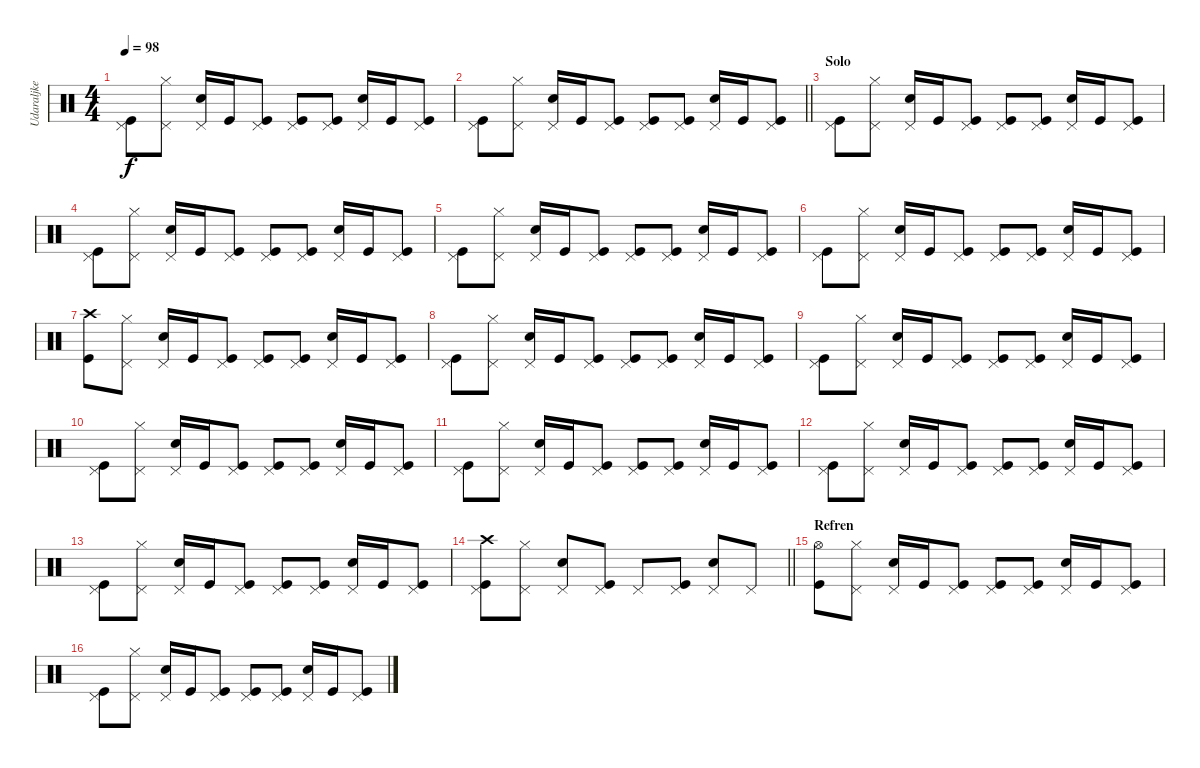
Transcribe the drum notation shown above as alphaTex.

\track ("Udaraljke" "Udaraljke") {instrument percussion}
\staff {score}
\articulation defaults
\ts (4 4)
\tempo 98
\clef neutral
\ks c
("Pedal Hi-Hat (hit)" "Kick (hit)").8{dy f} ("Pedal Hi-Hat (hit)" "Hi-Hat (closed)").8 ("Pedal Hi-Hat (hit)" "Electric Snare (hit)").16 "Kick (hit)".16 ("Pedal Hi-Hat (hit)" "Kick (hit)").8 ("Pedal Hi-Hat (hit)" "Kick (hit)").8 ("Pedal Hi-Hat (hit)" "Kick (hit)").8 ("Pedal Hi-Hat (hit)" "Electric Snare (hit)").16 "Kick (hit)".16 ("Pedal Hi-Hat (hit)" "Kick (hit)").8 |
\barLineRight lightlight
("Pedal Hi-Hat (hit)" "Kick (hit)").8 ("Pedal Hi-Hat (hit)" "Hi-Hat (closed)").8 ("Pedal Hi-Hat (hit)" "Electric Snare (hit)").16 "Kick (hit)".16 ("Pedal Hi-Hat (hit)" "Kick (hit)").8 ("Pedal Hi-Hat (hit)" "Kick (hit)").8 ("Pedal Hi-Hat (hit)" "Kick (hit)").8 ("Pedal Hi-Hat (hit)" "Electric Snare (hit)").16 "Kick (hit)".16 ("Pedal Hi-Hat (hit)" "Kick (hit)").8 |
\section ("" "Solo")
("Pedal Hi-Hat (hit)" "Kick (hit)").8 ("Pedal Hi-Hat (hit)" "Hi-Hat (closed)").8 ("Pedal Hi-Hat (hit)" "Electric Snare (hit)").16 "Kick (hit)".16 ("Pedal Hi-Hat (hit)" "Kick (hit)").8 ("Pedal Hi-Hat (hit)" "Kick (hit)").8 ("Pedal Hi-Hat (hit)" "Kick (hit)").8 ("Pedal Hi-Hat (hit)" "Electric Snare (hit)").16 "Kick (hit)".16 ("Pedal Hi-Hat (hit)" "Kick (hit)").8 |
("Pedal Hi-Hat (hit)" "Kick (hit)").8 ("Pedal Hi-Hat (hit)" "Hi-Hat (closed)").8 ("Pedal Hi-Hat (hit)" "Electric Snare (hit)").16 "Kick (hit)".16 ("Pedal Hi-Hat (hit)" "Kick (hit)").8 ("Pedal Hi-Hat (hit)" "Kick (hit)").8 ("Pedal Hi-Hat (hit)" "Kick (hit)").8 ("Pedal Hi-Hat (hit)" "Electric Snare (hit)").16 "Kick (hit)".16 ("Pedal Hi-Hat (hit)" "Kick (hit)").8 |
("Pedal Hi-Hat (hit)" "Kick (hit)").8 ("Pedal Hi-Hat (hit)" "Hi-Hat (closed)").8 ("Pedal Hi-Hat (hit)" "Electric Snare (hit)").16 "Kick (hit)".16 ("Pedal Hi-Hat (hit)" "Kick (hit)").8 ("Pedal Hi-Hat (hit)" "Kick (hit)").8 ("Pedal Hi-Hat (hit)" "Kick (hit)").8 ("Pedal Hi-Hat (hit)" "Electric Snare (hit)").16 "Kick (hit)".16 ("Pedal Hi-Hat (hit)" "Kick (hit)").8 |
("Pedal Hi-Hat (hit)" "Kick (hit)").8 ("Pedal Hi-Hat (hit)" "Hi-Hat (closed)").8 ("Pedal Hi-Hat (hit)" "Electric Snare (hit)").16 "Kick (hit)".16 ("Pedal Hi-Hat (hit)" "Kick (hit)").8 ("Pedal Hi-Hat (hit)" "Kick (hit)").8 ("Pedal Hi-Hat (hit)" "Kick (hit)").8 ("Pedal Hi-Hat (hit)" "Electric Snare (hit)").16 "Kick (hit)".16 ("Pedal Hi-Hat (hit)" "Kick (hit)").8 |
("Crash high (hit)" "Kick (hit)").8 ("Pedal Hi-Hat (hit)" "Hi-Hat (closed)").8 ("Pedal Hi-Hat (hit)" "Electric Snare (hit)").16 "Kick (hit)".16 ("Pedal Hi-Hat (hit)" "Kick (hit)").8 ("Pedal Hi-Hat (hit)" "Kick (hit)").8 ("Pedal Hi-Hat (hit)" "Kick (hit)").8 ("Pedal Hi-Hat (hit)" "Electric Snare (hit)").16 "Kick (hit)".16 ("Pedal Hi-Hat (hit)" "Kick (hit)").8 |
("Pedal Hi-Hat (hit)" "Kick (hit)").8 ("Pedal Hi-Hat (hit)" "Hi-Hat (closed)").8 ("Pedal Hi-Hat (hit)" "Electric Snare (hit)").16 "Kick (hit)".16 ("Pedal Hi-Hat (hit)" "Kick (hit)").8 ("Pedal Hi-Hat (hit)" "Kick (hit)").8 ("Pedal Hi-Hat (hit)" "Kick (hit)").8 ("Pedal Hi-Hat (hit)" "Electric Snare (hit)").16 "Kick (hit)".16 ("Pedal Hi-Hat (hit)" "Kick (hit)").8 |
("Pedal Hi-Hat (hit)" "Kick (hit)").8 ("Pedal Hi-Hat (hit)" "Hi-Hat (closed)").8 ("Pedal Hi-Hat (hit)" "Electric Snare (hit)").16 "Kick (hit)".16 ("Pedal Hi-Hat (hit)" "Kick (hit)").8 ("Pedal Hi-Hat (hit)" "Kick (hit)").8 ("Pedal Hi-Hat (hit)" "Kick (hit)").8 ("Pedal Hi-Hat (hit)" "Electric Snare (hit)").16 "Kick (hit)".16 ("Pedal Hi-Hat (hit)" "Kick (hit)").8 |
("Pedal Hi-Hat (hit)" "Kick (hit)").8 ("Pedal Hi-Hat (hit)" "Hi-Hat (closed)").8 ("Pedal Hi-Hat (hit)" "Electric Snare (hit)").16 "Kick (hit)".16 ("Pedal Hi-Hat (hit)" "Kick (hit)").8 ("Pedal Hi-Hat (hit)" "Kick (hit)").8 ("Pedal Hi-Hat (hit)" "Kick (hit)").8 ("Pedal Hi-Hat (hit)" "Electric Snare (hit)").16 "Kick (hit)".16 ("Pedal Hi-Hat (hit)" "Kick (hit)").8 |
("Pedal Hi-Hat (hit)" "Kick (hit)").8 ("Pedal Hi-Hat (hit)" "Hi-Hat (closed)").8 ("Pedal Hi-Hat (hit)" "Electric Snare (hit)").16 "Kick (hit)".16 ("Pedal Hi-Hat (hit)" "Kick (hit)").8 ("Pedal Hi-Hat (hit)" "Kick (hit)").8 ("Pedal Hi-Hat (hit)" "Kick (hit)").8 ("Pedal Hi-Hat (hit)" "Electric Snare (hit)").16 "Kick (hit)".16 ("Pedal Hi-Hat (hit)" "Kick (hit)").8 |
("Pedal Hi-Hat (hit)" "Kick (hit)").8 ("Pedal Hi-Hat (hit)" "Hi-Hat (closed)").8 ("Pedal Hi-Hat (hit)" "Electric Snare (hit)").16 "Kick (hit)".16 ("Pedal Hi-Hat (hit)" "Kick (hit)").8 ("Pedal Hi-Hat (hit)" "Kick (hit)").8 ("Pedal Hi-Hat (hit)" "Kick (hit)").8 ("Pedal Hi-Hat (hit)" "Electric Snare (hit)").16 "Kick (hit)".16 ("Pedal Hi-Hat (hit)" "Kick (hit)").8 |
("Pedal Hi-Hat (hit)" "Kick (hit)").8 ("Pedal Hi-Hat (hit)" "Hi-Hat (closed)").8 ("Pedal Hi-Hat (hit)" "Electric Snare (hit)").16 "Kick (hit)".16 ("Pedal Hi-Hat (hit)" "Kick (hit)").8 ("Pedal Hi-Hat (hit)" "Kick (hit)").8 ("Pedal Hi-Hat (hit)" "Kick (hit)").8 ("Pedal Hi-Hat (hit)" "Electric Snare (hit)").16 "Kick (hit)".16 ("Pedal Hi-Hat (hit)" "Kick (hit)").8 |
\barLineRight lightlight
("Pedal Hi-Hat (hit)" "Crash high (hit)" "Kick (hit)").8 ("Pedal Hi-Hat (hit)" "Hi-Hat (closed)").8 ("Pedal Hi-Hat (hit)" "Electric Snare (hit)").8 ("Pedal Hi-Hat (hit)" "Kick (hit)").8 "Pedal Hi-Hat (hit)".8 ("Pedal Hi-Hat (hit)" "Kick (hit)").8 ("Pedal Hi-Hat (hit)" "Electric Snare (hit)").8 "Pedal Hi-Hat (hit)".8 |
\section ("" "Refren")
("Hi-Hat (open)" "Kick (hit)").8 ("Pedal Hi-Hat (hit)" "Hi-Hat (closed)").8 ("Pedal Hi-Hat (hit)" "Electric Snare (hit)").16 "Kick (hit)".16 ("Pedal Hi-Hat (hit)" "Kick (hit)").8 ("Pedal Hi-Hat (hit)" "Kick (hit)").8 ("Pedal Hi-Hat (hit)" "Kick (hit)").8 ("Pedal Hi-Hat (hit)" "Electric Snare (hit)").16 "Kick (hit)".16 ("Pedal Hi-Hat (hit)" "Kick (hit)").8 |
("Pedal Hi-Hat (hit)" "Kick (hit)").8 ("Pedal Hi-Hat (hit)" "Hi-Hat (closed)").8 ("Pedal Hi-Hat (hit)" "Electric Snare (hit)").16 "Kick (hit)".16 ("Pedal Hi-Hat (hit)" "Kick (hit)").8 ("Pedal Hi-Hat (hit)" "Kick (hit)").8 ("Pedal Hi-Hat (hit)" "Kick (hit)").8 ("Pedal Hi-Hat (hit)" "Electric Snare (hit)").16 "Kick (hit)".16 ("Pedal Hi-Hat (hit)" "Kick (hit)").8
